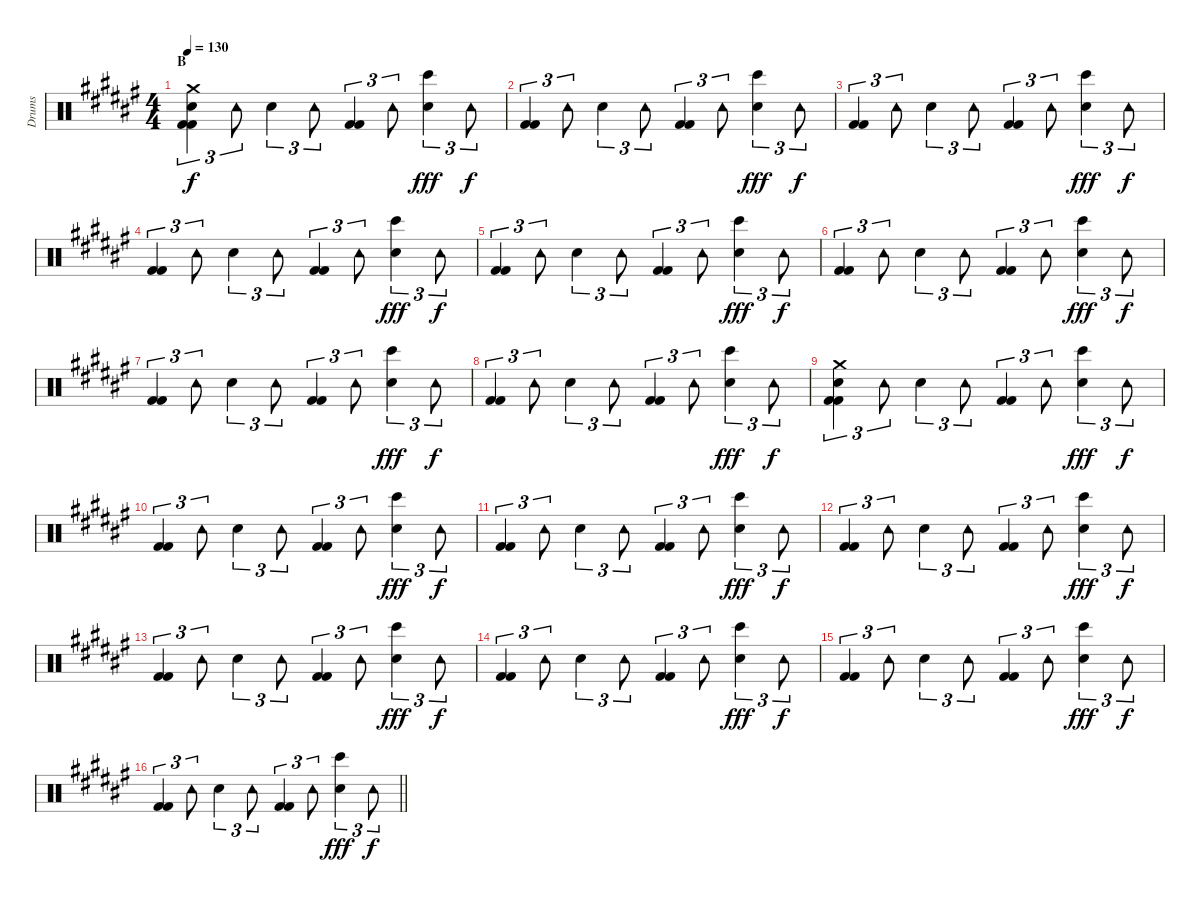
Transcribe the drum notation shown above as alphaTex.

\track ("Drums" "Drums") {instrument percussion}
\staff {score}
\articulation defaults
\ts (4 4)
\section ("" "B")
\tempo 130
\clef neutral
\ks d#minor
("Crash medium (hit)" "Snare (hit) 2" "Kick (hit) 2" "Kick (hit) 2").4{tu (3 2) dy f} "Tambourine (hit)".8{tu (3 2)} "Snare (hit) 2".4{tu (3 2)} "Tambourine (hit)".8{tu (3 2)} ("Kick (hit) 2" "Kick (hit) 2").4{tu (3 2)} "Tambourine (hit)".8{tu (3 2)} ("Bongo High (hit)" "Snare (hit) 2").4{tu (3 2) dy fff} "Tambourine (hit)".8{tu (3 2) dy f} |
("Kick (hit) 2" "Kick (hit) 2").4{tu (3 2)} "Tambourine (hit)".8{tu (3 2)} "Snare (hit) 2".4{tu (3 2)} "Tambourine (hit)".8{tu (3 2)} ("Kick (hit) 2" "Kick (hit) 2").4{tu (3 2)} "Tambourine (hit)".8{tu (3 2)} ("Bongo High (hit)" "Snare (hit) 2").4{tu (3 2) dy fff} "Tambourine (hit)".8{tu (3 2) dy f} |
("Kick (hit) 2" "Kick (hit) 2").4{tu (3 2)} "Tambourine (hit)".8{tu (3 2)} "Snare (hit) 2".4{tu (3 2)} "Tambourine (hit)".8{tu (3 2)} ("Kick (hit) 2" "Kick (hit) 2").4{tu (3 2)} "Tambourine (hit)".8{tu (3 2)} ("Bongo High (hit)" "Snare (hit) 2").4{tu (3 2) dy fff} "Tambourine (hit)".8{tu (3 2) dy f} |
("Kick (hit) 2" "Kick (hit) 2").4{tu (3 2)} "Tambourine (hit)".8{tu (3 2)} "Snare (hit) 2".4{tu (3 2)} "Tambourine (hit)".8{tu (3 2)} ("Kick (hit) 2" "Kick (hit) 2").4{tu (3 2)} "Tambourine (hit)".8{tu (3 2)} ("Bongo High (hit)" "Snare (hit) 2").4{tu (3 2) dy fff} "Tambourine (hit)".8{tu (3 2) dy f} |
("Kick (hit) 2" "Kick (hit) 2").4{tu (3 2)} "Tambourine (hit)".8{tu (3 2)} "Snare (hit) 2".4{tu (3 2)} "Tambourine (hit)".8{tu (3 2)} ("Kick (hit) 2" "Kick (hit) 2").4{tu (3 2)} "Tambourine (hit)".8{tu (3 2)} ("Bongo High (hit)" "Snare (hit) 2").4{tu (3 2) dy fff} "Tambourine (hit)".8{tu (3 2) dy f} |
("Kick (hit) 2" "Kick (hit) 2").4{tu (3 2)} "Tambourine (hit)".8{tu (3 2)} "Snare (hit) 2".4{tu (3 2)} "Tambourine (hit)".8{tu (3 2)} ("Kick (hit) 2" "Kick (hit) 2").4{tu (3 2)} "Tambourine (hit)".8{tu (3 2)} ("Bongo High (hit)" "Snare (hit) 2").4{tu (3 2) dy fff} "Tambourine (hit)".8{tu (3 2) dy f} |
("Kick (hit) 2" "Kick (hit) 2").4{tu (3 2)} "Tambourine (hit)".8{tu (3 2)} "Snare (hit) 2".4{tu (3 2)} "Tambourine (hit)".8{tu (3 2)} ("Kick (hit) 2" "Kick (hit) 2").4{tu (3 2)} "Tambourine (hit)".8{tu (3 2)} ("Bongo High (hit)" "Snare (hit) 2").4{tu (3 2) dy fff} "Tambourine (hit)".8{tu (3 2) dy f} |
("Kick (hit) 2" "Kick (hit) 2").4{tu (3 2)} "Tambourine (hit)".8{tu (3 2)} "Snare (hit) 2".4{tu (3 2)} "Tambourine (hit)".8{tu (3 2)} ("Kick (hit) 2" "Kick (hit) 2").4{tu (3 2)} "Tambourine (hit)".8{tu (3 2)} ("Bongo High (hit)" "Snare (hit) 2").4{tu (3 2) dy fff} "Tambourine (hit)".8{tu (3 2) dy f} |
("Crash medium (hit)" "Snare (hit) 2" "Kick (hit) 2" "Kick (hit) 2").4{tu (3 2)} "Tambourine (hit)".8{tu (3 2)} "Snare (hit) 2".4{tu (3 2)} "Tambourine (hit)".8{tu (3 2)} ("Kick (hit) 2" "Kick (hit) 2").4{tu (3 2)} "Tambourine (hit)".8{tu (3 2)} ("Bongo High (hit)" "Snare (hit) 2").4{tu (3 2) dy fff} "Tambourine (hit)".8{tu (3 2) dy f} |
("Kick (hit) 2" "Kick (hit) 2").4{tu (3 2)} "Tambourine (hit)".8{tu (3 2)} "Snare (hit) 2".4{tu (3 2)} "Tambourine (hit)".8{tu (3 2)} ("Kick (hit) 2" "Kick (hit) 2").4{tu (3 2)} "Tambourine (hit)".8{tu (3 2)} ("Bongo High (hit)" "Snare (hit) 2").4{tu (3 2) dy fff} "Tambourine (hit)".8{tu (3 2) dy f} |
("Kick (hit) 2" "Kick (hit) 2").4{tu (3 2)} "Tambourine (hit)".8{tu (3 2)} "Snare (hit) 2".4{tu (3 2)} "Tambourine (hit)".8{tu (3 2)} ("Kick (hit) 2" "Kick (hit) 2").4{tu (3 2)} "Tambourine (hit)".8{tu (3 2)} ("Bongo High (hit)" "Snare (hit) 2").4{tu (3 2) dy fff} "Tambourine (hit)".8{tu (3 2) dy f} |
("Kick (hit) 2" "Kick (hit) 2").4{tu (3 2)} "Tambourine (hit)".8{tu (3 2)} "Snare (hit) 2".4{tu (3 2)} "Tambourine (hit)".8{tu (3 2)} ("Kick (hit) 2" "Kick (hit) 2").4{tu (3 2)} "Tambourine (hit)".8{tu (3 2)} ("Bongo High (hit)" "Snare (hit) 2").4{tu (3 2) dy fff} "Tambourine (hit)".8{tu (3 2) dy f} |
("Kick (hit) 2" "Kick (hit) 2").4{tu (3 2)} "Tambourine (hit)".8{tu (3 2)} "Snare (hit) 2".4{tu (3 2)} "Tambourine (hit)".8{tu (3 2)} ("Kick (hit) 2" "Kick (hit) 2").4{tu (3 2)} "Tambourine (hit)".8{tu (3 2)} ("Bongo High (hit)" "Snare (hit) 2").4{tu (3 2) dy fff} "Tambourine (hit)".8{tu (3 2) dy f} |
("Kick (hit) 2" "Kick (hit) 2").4{tu (3 2)} "Tambourine (hit)".8{tu (3 2)} "Snare (hit) 2".4{tu (3 2)} "Tambourine (hit)".8{tu (3 2)} ("Kick (hit) 2" "Kick (hit) 2").4{tu (3 2)} "Tambourine (hit)".8{tu (3 2)} ("Bongo High (hit)" "Snare (hit) 2").4{tu (3 2) dy fff} "Tambourine (hit)".8{tu (3 2) dy f} |
("Kick (hit) 2" "Kick (hit) 2").4{tu (3 2)} "Tambourine (hit)".8{tu (3 2)} "Snare (hit) 2".4{tu (3 2)} "Tambourine (hit)".8{tu (3 2)} ("Kick (hit) 2" "Kick (hit) 2").4{tu (3 2)} "Tambourine (hit)".8{tu (3 2)} ("Bongo High (hit)" "Snare (hit) 2").4{tu (3 2) dy fff} "Tambourine (hit)".8{tu (3 2) dy f} |
\barLineRight lightlight
("Kick (hit) 2" "Kick (hit) 2").4{tu (3 2)} "Tambourine (hit)".8{tu (3 2)} "Snare (hit) 2".4{tu (3 2)} "Tambourine (hit)".8{tu (3 2)} ("Kick (hit) 2" "Kick (hit) 2").4{tu (3 2)} "Tambourine (hit)".8{tu (3 2)} ("Bongo High (hit)" "Snare (hit) 2").4{tu (3 2) dy fff} "Tambourine (hit)".8{tu (3 2) dy f}
